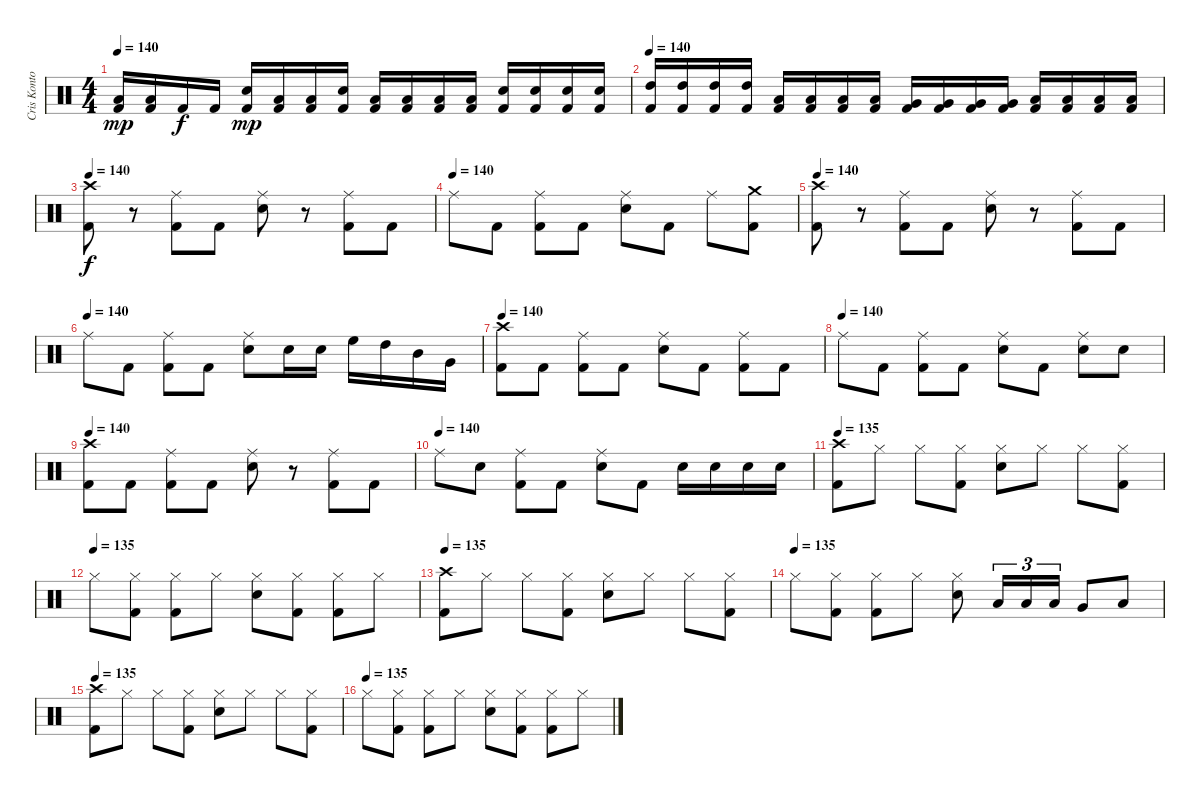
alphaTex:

\track ("Cris Kontos" "Cris Konto") {instrument percussion}
\staff {score}
\articulation defaults
\ts (4 4)
\tempo 140
\clef neutral
\ks c
("Low Floor Tom (hit)" "Kick (hit) 2").16{dy mp} ("Low Floor Tom (hit)" "Kick (hit) 2").16 "Kick (hit) 2".16{dy f} "Kick (hit) 2".16 ("Electric Snare (hit)" "Kick (hit) 2").16{dy mp} ("Low Floor Tom (hit)" "Kick (hit) 2").16 ("Low Floor Tom (hit)" "Kick (hit) 2").16 ("Electric Snare (hit)" "Kick (hit) 2").16 ("Low Floor Tom (hit)" "Kick (hit) 2").16 ("Low Floor Tom (hit)" "Kick (hit) 2").16 ("Low Floor Tom (hit)" "Kick (hit) 2").16 ("Low Floor Tom (hit)" "Kick (hit) 2").16 ("Electric Snare (hit)" "Kick (hit) 2").16 ("Electric Snare (hit)" "Kick (hit) 2").16 ("Electric Snare (hit)" "Kick (hit) 2").16 ("Electric Snare (hit)" "Kick (hit) 2").16 |
\tempo 140
("High Tom (hit)" "Kick (hit) 2").16 ("High Tom (hit)" "Kick (hit) 2").16 ("High Tom (hit)" "Kick (hit) 2").16 ("High Tom (hit)" "Kick (hit) 2").16 ("Low Tom (hit)" "Kick (hit) 2").16 ("Low Tom (hit)" "Kick (hit) 2").16 ("Low Tom (hit)" "Kick (hit) 2").16 ("Low Tom (hit)" "Kick (hit) 2").16 ("Very Low Tom (hit)" "Kick (hit) 2").16 ("Very Low Tom (hit)" "Kick (hit) 2").16 ("Very Low Tom (hit)" "Kick (hit) 2").16 ("Very Low Tom (hit)" "Kick (hit) 2").16 ("Low Floor Tom (hit)" "Kick (hit) 2").16 ("Low Floor Tom (hit)" "Kick (hit) 2").16 ("Low Floor Tom (hit)" "Kick (hit) 2").16 ("Low Floor Tom (hit)" "Kick (hit) 2").16 |
\tempo 140
("Crash high (hit)" "Kick (hit) 2").8{dy f} r.8 ("Ride (middle)" "Kick (hit) 2").8 "Kick (hit) 2".8 ("Ride (middle)" "Electric Snare (hit)").8 r.8 ("Ride (middle)" "Kick (hit) 2").8 "Kick (hit) 2".8 |
\tempo (140)
"Ride (middle)".8 "Kick (hit) 2".8 ("Ride (middle)" "Kick (hit) 2").8 "Kick (hit) 2".8 ("Ride (middle)" "Electric Snare (hit)").8 "Kick (hit) 2".8 "Ride (middle)".8 ("Crash medium (hit)" "Kick (hit) 2").8 |
\tempo 140
("Crash high (hit)" "Kick (hit) 2").8 r.8 ("Ride (middle)" "Kick (hit) 2").8 "Kick (hit) 2".8 ("Ride (middle)" "Electric Snare (hit)").8 r.8 ("Ride (middle)" "Kick (hit) 2").8 "Kick (hit) 2".8 |
\tempo (140)
"Ride (middle)".8 "Kick (hit) 2".8 ("Ride (middle)" "Kick (hit) 2").8 "Kick (hit) 2".8 ("Ride (middle)" "Electric Snare (hit)").8 "Electric Snare (hit)".16 "Electric Snare (hit)".16 "High Floor Tom (hit)".16 "High Tom (hit)".16 "Mid Tom (hit)".16 "Very Low Tom (hit)".16 |
\tempo 140
("Crash high (hit)" "Kick (hit) 2").8 "Kick (hit) 2".8 ("Ride (middle)" "Kick (hit) 2").8 "Kick (hit) 2".8 ("Ride (middle)" "Electric Snare (hit)").8 "Kick (hit) 2".8 ("Ride (middle)" "Kick (hit) 2").8 "Kick (hit) 2".8 |
\tempo (140)
"Ride (middle)".8 "Kick (hit) 2".8 ("Ride (middle)" "Kick (hit) 2").8 "Kick (hit) 2".8 ("Ride (middle)" "Electric Snare (hit)").8 "Kick (hit) 2".8 ("Ride (middle)" "Electric Snare (hit)").8 "Electric Snare (hit)".8 |
\tempo 140
("Crash high (hit)" "Kick (hit) 2").8 "Kick (hit) 2".8 ("Ride (middle)" "Kick (hit) 2").8 "Kick (hit) 2".8 ("Ride (middle)" "Electric Snare (hit)").8 r.8 ("Ride (middle)" "Kick (hit) 2").8 "Kick (hit) 2".8 |
\tempo (140)
"Ride (middle)".8 "Electric Snare (hit)".8 ("Ride (middle)" "Kick (hit) 2").8 "Kick (hit) 2".8 ("Ride (middle)" "Electric Snare (hit)").8 "Kick (hit) 2".8 "Electric Snare (hit)".16 "Electric Snare (hit)".16 "Electric Snare (hit)".16 "Electric Snare (hit)".16 |
\tempo 135
("Crash high (hit)" "Kick (hit) 2").8 "Hi-Hat (closed)".8 "Hi-Hat (closed)".8 ("Hi-Hat (closed)" "Kick (hit) 2").8 ("Hi-Hat (closed)" "Electric Snare (hit)").8 "Hi-Hat (closed)".8 "Hi-Hat (closed)".8 ("Hi-Hat (closed)" "Kick (hit) 2").8 |
\tempo (135)
"Hi-Hat (closed)".8 ("Hi-Hat (closed)" "Kick (hit) 2").8 ("Hi-Hat (closed)" "Kick (hit) 2").8 "Hi-Hat (closed)".8 ("Hi-Hat (closed)" "Electric Snare (hit)").8 ("Hi-Hat (closed)" "Kick (hit) 2").8 ("Hi-Hat (closed)" "Kick (hit) 2").8 "Hi-Hat (closed)".8 |
\tempo 135
("Crash high (hit)" "Kick (hit) 2").8 "Hi-Hat (closed)".8 "Hi-Hat (closed)".8 ("Hi-Hat (closed)" "Kick (hit) 2").8 ("Hi-Hat (closed)" "Electric Snare (hit)").8 "Hi-Hat (closed)".8 "Hi-Hat (closed)".8 ("Hi-Hat (closed)" "Kick (hit) 2").8 |
\tempo (135)
"Hi-Hat (closed)".8 ("Hi-Hat (closed)" "Kick (hit) 2").8 ("Hi-Hat (closed)" "Kick (hit) 2").8 "Hi-Hat (closed)".8 ("Hi-Hat (closed)" "Electric Snare (hit)").8 "Low Tom (hit)".16{tu (3 2)} "Low Tom (hit)".16{tu (3 2)} "Low Tom (hit)".16{tu (3 2)} "Very Low Tom (hit)".8 "Low Floor Tom (hit)".8 |
\tempo 135
("Crash high (hit)" "Kick (hit) 2").8 "Hi-Hat (closed)".8 "Hi-Hat (closed)".8 ("Hi-Hat (closed)" "Kick (hit) 2").8 ("Hi-Hat (closed)" "Electric Snare (hit)").8 "Hi-Hat (closed)".8 "Hi-Hat (closed)".8 ("Hi-Hat (closed)" "Kick (hit) 2").8 |
\tempo (135)
"Hi-Hat (closed)".8 ("Hi-Hat (closed)" "Kick (hit) 2").8 ("Hi-Hat (closed)" "Kick (hit) 2").8 "Hi-Hat (closed)".8 ("Hi-Hat (closed)" "Electric Snare (hit)").8 ("Hi-Hat (closed)" "Kick (hit) 2").8 ("Hi-Hat (closed)" "Kick (hit) 2").8 "Hi-Hat (closed)".8
